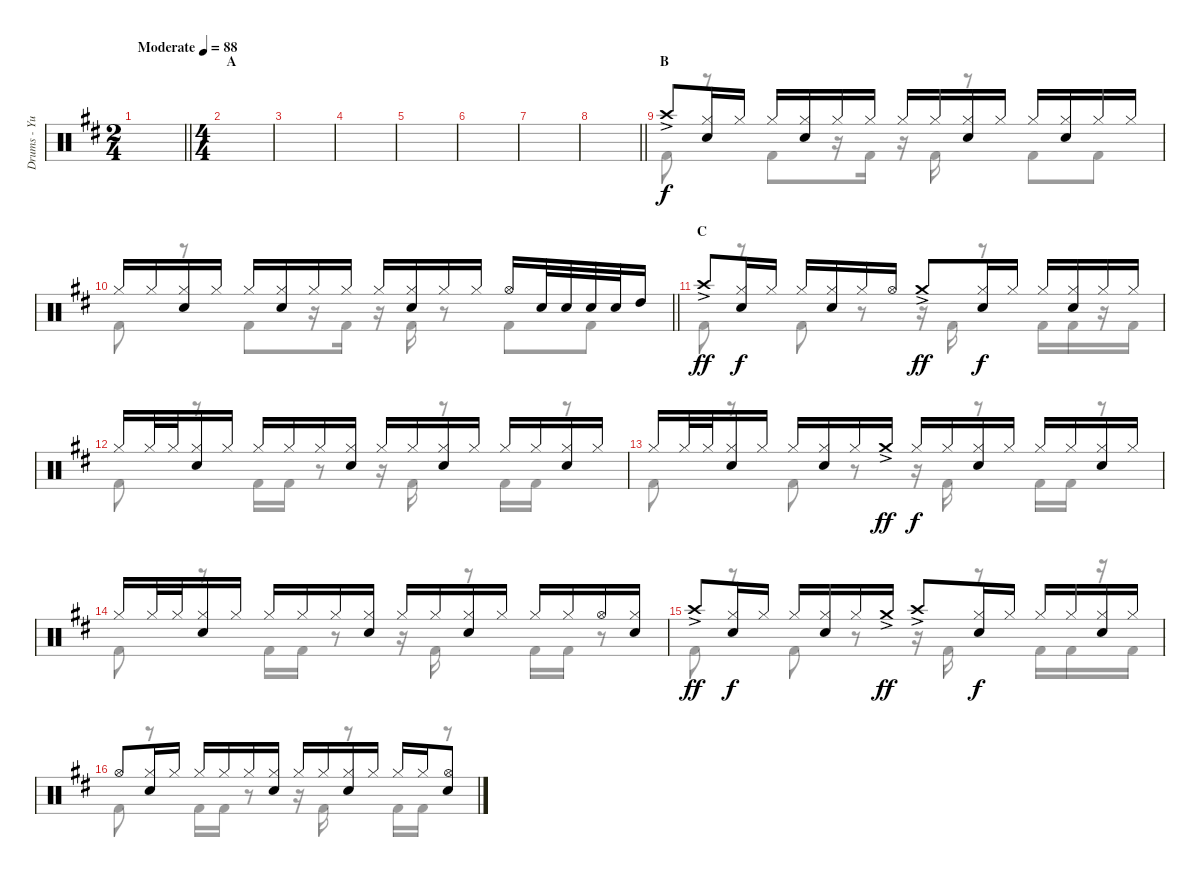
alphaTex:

\track ("Drums - Yuuya" "Drums - Yu") {instrument percussion}
\staff {score}
\articulation defaults
\voice
\ts (2 4)
\tempo (88 "Moderate")
\clef neutral
\barLineRight lightlight
\ks d
|
\ts (4 4)
\section ("" "A")
|
|
|
|
|
|
\barLineRight lightlight
|
\section ("" "B")
"Crash high (hit)"{ac}.8 ("Hi-Hat (closed)" "Snare (hit) 2").16{dy f} "Hi-Hat (closed)".16 "Hi-Hat (closed)".16 ("Hi-Hat (closed)" "Snare (hit) 2").16 "Hi-Hat (closed)".16 "Hi-Hat (closed)".16 "Hi-Hat (closed)".16 "Hi-Hat (closed)".16 ("Hi-Hat (closed)" "Snare (hit) 2").16 "Hi-Hat (closed)".16 "Hi-Hat (closed)".16 ("Hi-Hat (closed)" "Snare (hit) 2").16 "Hi-Hat (closed)".16 "Hi-Hat (closed)".16 |
\barLineRight lightlight "Hi-Hat (closed)".16 "Hi-Hat (closed)".16
("Hi-Hat (closed)" "Snare (hit) 2").16 "Hi-Hat (closed)".16 "Hi-Hat (closed)".16 ("Hi-Hat (closed)" "Snare (hit) 2").16 "Hi-Hat (closed)".16 "Hi-Hat (closed)".16 "Hi-Hat (closed)".16 ("Hi-Hat (closed)" "Snare (hit) 2").16 "Hi-Hat (closed)".16 "Hi-Hat (closed)".16 "Hi-Hat (open)".16 "Snare (hit) 2".32 "Snare (hit) 2".32 "Snare (hit) 2".32 "Snare (hit) 2".32 "High Tom (hit)".16 |
\section ("" "C")
"Crash high (hit)"{ac}.8{dy ff} ("Hi-Hat (closed)" "Snare (hit) 2").16{dy f} "Hi-Hat (closed)".16 "Hi-Hat (closed)".16 ("Hi-Hat (closed)" "Snare (hit) 2").16 "Hi-Hat (closed)".16 "Hi-Hat (open)".16 "Crash medium (hit)"{ac}.8{dy ff} ("Hi-Hat (closed)" "Snare (hit) 2").16{dy f} "Hi-Hat (closed)".16 "Hi-Hat (closed)".16 ("Hi-Hat (closed)" "Snare (hit) 2").16 "Hi-Hat (closed)".16 "Hi-Hat (closed)".16 |
"Hi-Hat (closed)".16 "Hi-Hat (closed)".32 "Hi-Hat (closed)".32 ("Hi-Hat (closed)" "Snare (hit) 2").16 "Hi-Hat (closed)".16 "Hi-Hat (closed)".16 "Hi-Hat (closed)".16 "Hi-Hat (closed)".16 ("Hi-Hat (closed)" "Snare (hit) 2").16 "Hi-Hat (closed)".16 "Hi-Hat (closed)".16 ("Hi-Hat (closed)" "Snare (hit) 2").16 "Hi-Hat (closed)".16 "Hi-Hat (closed)".16 "Hi-Hat (closed)".16 ("Hi-Hat (closed)" "Snare (hit) 2").16 "Hi-Hat (closed)".16 |
"Hi-Hat (closed)".16 "Hi-Hat (closed)".32 "Hi-Hat (closed)".32 ("Hi-Hat (closed)" "Snare (hit) 2").16 "Hi-Hat (closed)".16 "Hi-Hat (closed)".16 ("Hi-Hat (closed)" "Snare (hit) 2").16 "Hi-Hat (closed)".16 "Crash medium (hit)"{ac}.16{dy ff} "Hi-Hat (closed)".16{dy f} "Hi-Hat (closed)".16 ("Hi-Hat (closed)" "Snare (hit) 2").16 "Hi-Hat (closed)".16 "Hi-Hat (closed)".16 "Hi-Hat (closed)".16 ("Hi-Hat (closed)" "Snare (hit) 2").16 "Hi-Hat (closed)".16 |
"Hi-Hat (closed)".16 "Hi-Hat (closed)".32 "Hi-Hat (closed)".32 ("Hi-Hat (closed)" "Snare (hit) 2").16 "Hi-Hat (closed)".16 "Hi-Hat (closed)".16 "Hi-Hat (closed)".16 "Hi-Hat (closed)".16 ("Hi-Hat (closed)" "Snare (hit) 2").16 "Hi-Hat (closed)".16 "Hi-Hat (closed)".16 ("Hi-Hat (closed)" "Snare (hit) 2").16 "Hi-Hat (closed)".16 "Hi-Hat (closed)".16 "Hi-Hat (closed)".16 "Hi-Hat (open)".16 ("Hi-Hat (closed)" "Snare (hit) 2").16 |
"Crash high (hit)"{ac}.8{dy ff} ("Hi-Hat (closed)" "Snare (hit) 2").16{dy f} "Hi-Hat (closed)".16 "Hi-Hat (closed)".16 ("Hi-Hat (closed)" "Snare (hit) 2").16 "Hi-Hat (closed)".16 "Crash medium (hit)"{ac}.16{dy ff} "Crash high (hit)"{ac}.8 ("Hi-Hat (closed)" "Snare (hit) 2").16{dy f} "Hi-Hat (closed)".16 "Hi-Hat (closed)".16 "Hi-Hat (closed)".16 ("Hi-Hat (closed)" "Snare (hit) 2").16 "Hi-Hat (closed)".16 |
"Hi-Hat (open)".8 ("Hi-Hat (closed)" "Snare (hit) 2").16 "Hi-Hat (closed)".16 "Hi-Hat (closed)".16 "Hi-Hat (closed)".16 "Hi-Hat (closed)".16 ("Hi-Hat (closed)" "Snare (hit) 2").16 "Hi-Hat (closed)".16 "Hi-Hat (closed)".16 ("Hi-Hat (closed)" "Snare (hit) 2").16 "Hi-Hat (closed)".16 "Hi-Hat (closed)".16 "Hi-Hat (closed)".16 ("Hi-Hat (open)" "Snare (hit) 2").8
\voice
\clef neutral
\ottava regular
\simile none
\barLineRight lightlight
\ks d
|
|
|
|
|
|
|
\barLineRight lightlight
|
"Kick (hit) 2".8 r.8 "Kick (hit) 2".8 r.16 "Kick (hit) 2".16 r.16 "Kick (hit) 2".16 r.8 "Kick (hit) 2".8 "Kick (hit) 2".8 |
\barLineRight lightlight "Kick (hit) 2".8
r.8 "Kick (hit) 2".8 r.16 "Kick (hit) 2".16 r.16 "Kick (hit) 2".16 r.8 "Kick (hit) 2".8 "Kick (hit) 2".8 |
"Kick (hit) 2".8 r.8 "Kick (hit) 2".8 r.8 r.16 "Kick (hit) 2".16 r.8 "Kick (hit) 2".16 "Kick (hit) 2".16 r.16 "Kick (hit) 2".16 |
"Kick (hit) 2".8 r.8 "Kick (hit) 2".16 "Kick (hit) 2".16 r.8 r.16 "Kick (hit) 2".16 r.8 "Kick (hit) 2".16 "Kick (hit) 2".16 r.8 |
"Kick (hit) 2".8 r.8 "Kick (hit) 2".8 r.8 r.16 "Kick (hit) 2".16 r.8 "Kick (hit) 2".16 "Kick (hit) 2".16 r.8 |
"Kick (hit) 2".8 r.8 "Kick (hit) 2".16 "Kick (hit) 2".16 r.8 r.16 "Kick (hit) 2".16 r.8 "Kick (hit) 2".16 "Kick (hit) 2".16 r.8 |
"Kick (hit) 2".8 r.8 "Kick (hit) 2".8 r.8 r.16 "Kick (hit) 2".16 r.8 "Kick (hit) 2".16 "Kick (hit) 2".16 r.16 "Kick (hit) 2".16 |
"Kick (hit) 2".8 r.8 "Kick (hit) 2".16 "Kick (hit) 2".16 r.8 r.16 "Kick (hit) 2".16 r.8 "Kick (hit) 2".16 "Kick (hit) 2".16 r.8
